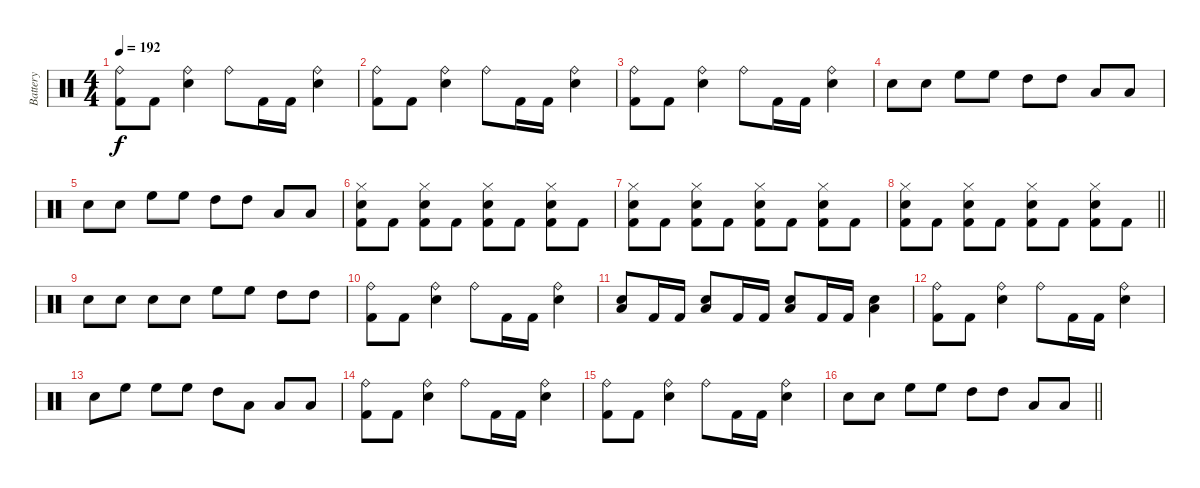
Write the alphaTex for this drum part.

\track ("Battery" "Battery") {instrument percussion}
\staff {score}
\articulation defaults
\ts (4 4)
\tempo 192
\clef neutral
\ks c
("Ride (bell)" "Kick (hit) 2").8{dy f} "Kick (hit) 2".8 ("Ride (bell)" "Snare (hit) 2").4 "Ride (bell)".8 "Kick (hit) 2".16 "Kick (hit) 2".16 ("Ride (bell)" "Snare (hit) 2").4 |
("Ride (bell)" "Kick (hit) 2").8 "Kick (hit) 2".8 ("Ride (bell)" "Snare (hit) 2").4 "Ride (bell)".8 "Kick (hit) 2".16 "Kick (hit) 2".16 ("Ride (bell)" "Snare (hit) 2").4 |
("Ride (bell)" "Kick (hit) 2").8 "Kick (hit) 2".8 ("Ride (bell)" "Snare (hit) 2").4 "Ride (bell)".8 "Kick (hit) 2".16 "Kick (hit) 2".16 ("Ride (bell)" "Snare (hit) 2").4 |
"Snare (hit) 2".8 "Snare (hit) 2".8 "High Floor Tom (hit)".8 "High Floor Tom (hit)".8 "High Tom (hit)".8 "High Tom (hit)".8 "Low Tom (hit)".8 "Low Tom (hit)".8 |
"Snare (hit) 2".8 "Snare (hit) 2".8 "High Floor Tom (hit)".8 "High Floor Tom (hit)".8 "High Tom (hit)".8 "High Tom (hit)".8 "Low Tom (hit)".8 "Low Tom (hit)".8 |
("Hi-Hat (closed)" "Snare (hit) 2" "Kick (hit) 2").8 "Kick (hit) 2".8 ("Hi-Hat (closed)" "Snare (hit) 2" "Kick (hit) 2").8 "Kick (hit) 2".8 ("Hi-Hat (closed)" "Snare (hit) 2" "Kick (hit) 2").8 "Kick (hit) 2".8 ("Hi-Hat (closed)" "Snare (hit) 2" "Kick (hit) 2").8 "Kick (hit) 2".8 |
("Hi-Hat (closed)" "Snare (hit) 2" "Kick (hit) 2").8 "Kick (hit) 2".8 ("Hi-Hat (closed)" "Snare (hit) 2" "Kick (hit) 2").8 "Kick (hit) 2".8 ("Hi-Hat (closed)" "Snare (hit) 2" "Kick (hit) 2").8 "Kick (hit) 2".8 ("Hi-Hat (closed)" "Snare (hit) 2" "Kick (hit) 2").8 "Kick (hit) 2".8 |
\barLineRight lightlight
("Hi-Hat (closed)" "Snare (hit) 2" "Kick (hit) 2").8 "Kick (hit) 2".8 ("Hi-Hat (closed)" "Snare (hit) 2" "Kick (hit) 2").8 "Kick (hit) 2".8 ("Hi-Hat (closed)" "Snare (hit) 2" "Kick (hit) 2").8 "Kick (hit) 2".8 ("Hi-Hat (closed)" "Snare (hit) 2" "Kick (hit) 2").8 "Kick (hit) 2".8 |
"Snare (hit) 2".8 "Snare (hit) 2".8 "Snare (hit) 2".8 "Snare (hit) 2".8 "High Floor Tom (hit)".8 "High Floor Tom (hit)".8 "High Tom (hit)".8 "High Tom (hit)".8 |
("Ride (bell)" "Kick (hit) 2").8 "Kick (hit) 2".8 ("Ride (bell)" "Snare (hit) 2").4 "Ride (bell)".8 "Kick (hit) 2".16 "Kick (hit) 2".16 ("Ride (bell)" "Snare (hit) 2").4 |
("Low Tom (hit)" "Snare (hit) 2").8 "Kick (hit) 2".16 "Kick (hit) 2".16 ("Low Tom (hit)" "Snare (hit) 2").8 "Kick (hit) 2".16 "Kick (hit) 2".16 ("Low Tom (hit)" "Snare (hit) 2").8 "Kick (hit) 2".16 "Kick (hit) 2".16 ("Low Tom (hit)" "Snare (hit) 2").4 |
("Ride (bell)" "Kick (hit) 2").8 "Kick (hit) 2".8 ("Ride (bell)" "Snare (hit) 2").4 "Ride (bell)".8 "Kick (hit) 2".16 "Kick (hit) 2".16 ("Ride (bell)" "Snare (hit) 2").4 |
"Snare (hit) 2".8 "High Floor Tom (hit)".8 "High Floor Tom (hit)".8 "High Floor Tom (hit)".8 "High Tom (hit)".8 "Low Tom (hit)".8 "Low Tom (hit)".8 "Low Tom (hit)".8 |
("Ride (bell)" "Kick (hit) 2").8 "Kick (hit) 2".8 ("Ride (bell)" "Snare (hit) 2").4 "Ride (bell)".8 "Kick (hit) 2".16 "Kick (hit) 2".16 ("Ride (bell)" "Snare (hit) 2").4 |
("Ride (bell)" "Kick (hit) 2").8 "Kick (hit) 2".8 ("Ride (bell)" "Snare (hit) 2").4 "Ride (bell)".8 "Kick (hit) 2".16 "Kick (hit) 2".16 ("Ride (bell)" "Snare (hit) 2").4 |
\barLineRight lightlight "Snare (hit) 2".8 "Snare (hit) 2".8 "High Floor Tom (hit)".8 "High Floor Tom (hit)".8 "High Tom (hit)".8 "High Tom (hit)".8 "Low Tom (hit)".8 "Low Tom (hit)".8
